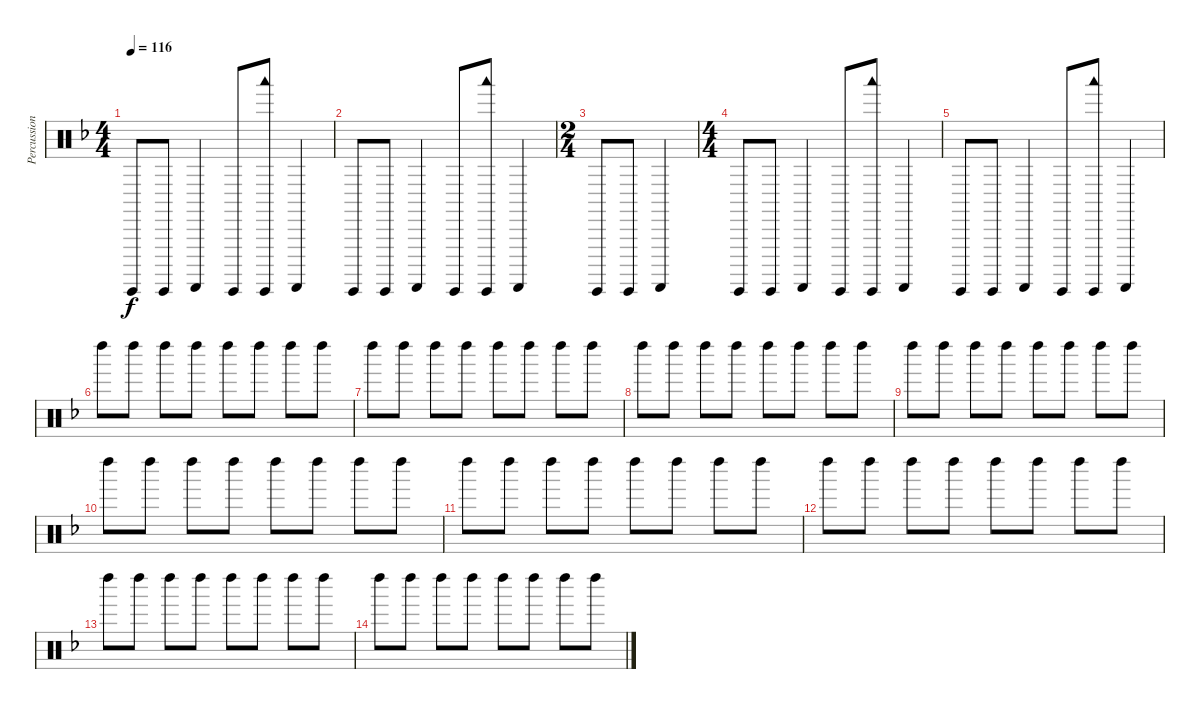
\track ("Percussions" "Percussion") {instrument percussion}
\staff {score}
\articulation defaults
\ts (4 4)
\tempo 116
\clef neutral
\ks dminor "Guiro (hit)".8{dy f} "Guiro (hit)".8 "Guiro (scrap-return)".4 "Guiro (hit)".8
("Guiro (hit)" "Woodblock low (hit)").8 "Guiro (scrap-return)".4 |
"Guiro (hit)".8 "Guiro (hit)".8 "Guiro (scrap-return)".4 "Guiro (hit)".8 ("Guiro (hit)" "Woodblock low (hit)").8 "Guiro (scrap-return)".4 |
\ts (2 4)
"Guiro (hit)".8 "Guiro (hit)".8 "Guiro (scrap-return)".4 |
\ts (4 4)
"Guiro (hit)".8 "Guiro (hit)".8 "Guiro (scrap-return)".4 "Guiro (hit)".8 ("Guiro (hit)" "Woodblock low (hit)").8 "Guiro (scrap-return)".4 |
"Guiro (hit)".8 "Guiro (hit)".8 "Guiro (scrap-return)".4 "Guiro (hit)".8 ("Guiro (hit)" "Woodblock low (hit)").8 "Guiro (scrap-return)".4 |
"Left Maraca (hit)".8 "Left Maraca (hit)".8 "Left Maraca (hit)".8 "Left Maraca (hit)".8 "Left Maraca (hit)".8 "Left Maraca (hit)".8 "Left Maraca (hit)".8 "Left Maraca (hit)".8 |
"Left Maraca (hit)".8 "Left Maraca (hit)".8 "Left Maraca (hit)".8 "Left Maraca (hit)".8 "Left Maraca (hit)".8 "Left Maraca (hit)".8 "Left Maraca (hit)".8 "Left Maraca (hit)".8 |
"Left Maraca (hit)".8 "Left Maraca (hit)".8 "Left Maraca (hit)".8 "Left Maraca (hit)".8 "Left Maraca (hit)".8 "Left Maraca (hit)".8 "Left Maraca (hit)".8 "Left Maraca (hit)".8 |
"Left Maraca (hit)".8 "Left Maraca (hit)".8 "Left Maraca (hit)".8 "Left Maraca (hit)".8 "Left Maraca (hit)".8 "Left Maraca (hit)".8 "Left Maraca (hit)".8 "Left Maraca (hit)".8 |
"Left Maraca (hit)".8 "Left Maraca (hit)".8 "Left Maraca (hit)".8 "Left Maraca (hit)".8 "Left Maraca (hit)".8 "Left Maraca (hit)".8 "Left Maraca (hit)".8 "Left Maraca (hit)".8 |
"Left Maraca (hit)".8 "Left Maraca (hit)".8 "Left Maraca (hit)".8 "Left Maraca (hit)".8 "Left Maraca (hit)".8 "Left Maraca (hit)".8 "Left Maraca (hit)".8 "Left Maraca (hit)".8 |
"Left Maraca (hit)".8 "Left Maraca (hit)".8 "Left Maraca (hit)".8 "Left Maraca (hit)".8 "Left Maraca (hit)".8 "Left Maraca (hit)".8 "Left Maraca (hit)".8 "Left Maraca (hit)".8 |
"Left Maraca (hit)".8 "Left Maraca (hit)".8 "Left Maraca (hit)".8 "Left Maraca (hit)".8 "Left Maraca (hit)".8 "Left Maraca (hit)".8 "Left Maraca (hit)".8 "Left Maraca (hit)".8 |
"Left Maraca (hit)".8 "Left Maraca (hit)".8 "Left Maraca (hit)".8 "Left Maraca (hit)".8 "Left Maraca (hit)".8 "Left Maraca (hit)".8 "Left Maraca (hit)".8 "Left Maraca (hit)".8
